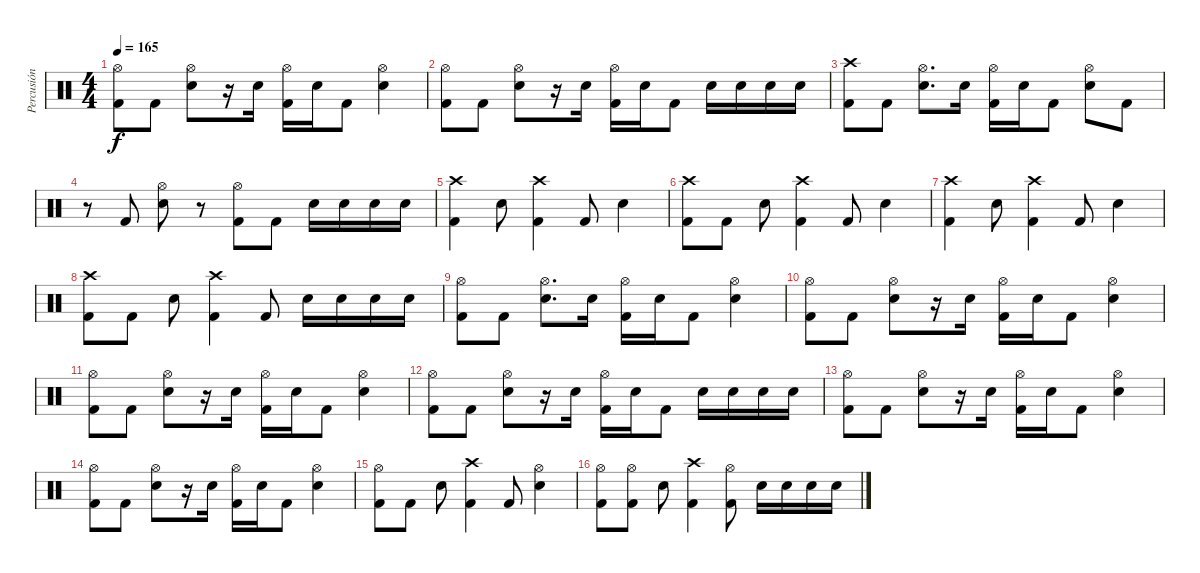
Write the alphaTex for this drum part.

\track ("Percusión" "Percusión") {instrument percussion}
\staff {score}
\articulation defaults
\ts (4 4)
\tempo 165
\clef neutral
\ks c
("Hi-Hat (open)" "Kick (hit) 2").8{dy f} "Kick (hit) 2".8 ("Hi-Hat (open)" "Electric Snare (hit)").8 r.16 "Electric Snare (hit)".16 ("Hi-Hat (open)" "Kick (hit) 2").16 "Electric Snare (hit)".16 "Kick (hit) 2".8 ("Hi-Hat (open)" "Electric Snare (hit)").4 |
("Hi-Hat (open)" "Kick (hit) 2").8 "Kick (hit) 2".8 ("Hi-Hat (open)" "Electric Snare (hit)").8 r.16 "Electric Snare (hit)".16 ("Hi-Hat (open)" "Kick (hit) 2").16 "Electric Snare (hit)".16 "Kick (hit) 2".8 "Electric Snare (hit)".16 "Electric Snare (hit)".16 "Electric Snare (hit)".16 "Electric Snare (hit)".16 |
("Crash high (hit)" "Kick (hit) 2").8 "Kick (hit) 2".8 ("Hi-Hat (open)" "Electric Snare (hit)").8{d} "Electric Snare (hit)".16 ("Hi-Hat (open)" "Kick (hit) 2").16 "Electric Snare (hit)".16 "Kick (hit) 2".8 ("Hi-Hat (open)" "Electric Snare (hit)").8 "Kick (hit) 2".8 |
r.8 "Kick (hit) 2".8 ("Hi-Hat (open)" "Electric Snare (hit)").8 r.8 ("Hi-Hat (open)" "Kick (hit) 2").8 "Kick (hit) 2".8 "Electric Snare (hit)".16 "Electric Snare (hit)".16 "Electric Snare (hit)".16 "Electric Snare (hit)".16 |
("Crash high (hit)" "Kick (hit) 2").4 "Electric Snare (hit)".8 ("Crash high (hit)" "Kick (hit) 2").4 "Kick (hit) 2".8 "Electric Snare (hit)".4 |
("Crash high (hit)" "Kick (hit) 2").8 "Kick (hit) 2".8 "Electric Snare (hit)".8 ("Crash high (hit)" "Kick (hit) 2").4 "Kick (hit) 2".8 "Electric Snare (hit)".4 |
("Crash high (hit)" "Kick (hit) 2").4 "Electric Snare (hit)".8 ("Crash high (hit)" "Kick (hit) 2").4 "Kick (hit) 2".8 "Electric Snare (hit)".4 |
("Crash high (hit)" "Kick (hit) 2").8 "Kick (hit) 2".8 "Electric Snare (hit)".8 ("Crash high (hit)" "Kick (hit) 2").4 "Kick (hit) 2".8 "Electric Snare (hit)".16 "Electric Snare (hit)".16 "Electric Snare (hit)".16 "Electric Snare (hit)".16 |
("Hi-Hat (open)" "Kick (hit) 2").8 "Kick (hit) 2".8 ("Hi-Hat (open)" "Electric Snare (hit)").8{d} "Electric Snare (hit)".16 ("Hi-Hat (open)" "Kick (hit) 2").16 "Electric Snare (hit)".16 "Kick (hit) 2".8 ("Hi-Hat (open)" "Electric Snare (hit)").4 |
("Hi-Hat (open)" "Kick (hit) 2").8 "Kick (hit) 2".8 ("Hi-Hat (open)" "Electric Snare (hit)").8 r.16 "Electric Snare (hit)".16 ("Hi-Hat (open)" "Kick (hit) 2").16 "Electric Snare (hit)".16 "Kick (hit) 2".8 ("Hi-Hat (open)" "Electric Snare (hit)").4 |
("Hi-Hat (open)" "Kick (hit) 2").8 "Kick (hit) 2".8 ("Hi-Hat (open)" "Electric Snare (hit)").8 r.16 "Electric Snare (hit)".16 ("Hi-Hat (open)" "Kick (hit) 2").16 "Electric Snare (hit)".16 "Kick (hit) 2".8 ("Hi-Hat (open)" "Electric Snare (hit)").4 |
("Hi-Hat (open)" "Kick (hit) 2").8 "Kick (hit) 2".8 ("Hi-Hat (open)" "Electric Snare (hit)").8 r.16 "Electric Snare (hit)".16 ("Hi-Hat (open)" "Kick (hit) 2").16 "Electric Snare (hit)".16 "Kick (hit) 2".8 "Electric Snare (hit)".16 "Electric Snare (hit)".16 "Electric Snare (hit)".16 "Electric Snare (hit)".16 |
("Hi-Hat (open)" "Kick (hit) 2").8 "Kick (hit) 2".8 ("Hi-Hat (open)" "Electric Snare (hit)").8 r.16 "Electric Snare (hit)".16 ("Hi-Hat (open)" "Kick (hit) 2").16 "Electric Snare (hit)".16 "Kick (hit) 2".8 ("Hi-Hat (open)" "Electric Snare (hit)").4 |
("Hi-Hat (open)" "Kick (hit) 2").8 "Kick (hit) 2".8 ("Hi-Hat (open)" "Electric Snare (hit)").8 r.16 "Electric Snare (hit)".16 ("Hi-Hat (open)" "Kick (hit) 2").16 "Electric Snare (hit)".16 "Kick (hit) 2".8 ("Hi-Hat (open)" "Electric Snare (hit)").4 |
("Hi-Hat (open)" "Kick (hit) 2").8 "Kick (hit) 2".8 "Electric Snare (hit)".8 ("Crash high (hit)" "Kick (hit) 2").4 "Kick (hit) 2".8 ("Hi-Hat (open)" "Electric Snare (hit)").4 |
("Hi-Hat (open)" "Kick (hit) 2").8 ("Hi-Hat (open)" "Kick (hit) 2").8 "Electric Snare (hit)".8 ("Crash high (hit)" "Kick (hit) 2").4 ("Hi-Hat (open)" "Kick (hit) 2").8 "Electric Snare (hit)".16 "Electric Snare (hit)".16 "Electric Snare (hit)".16 "Electric Snare (hit)".16
